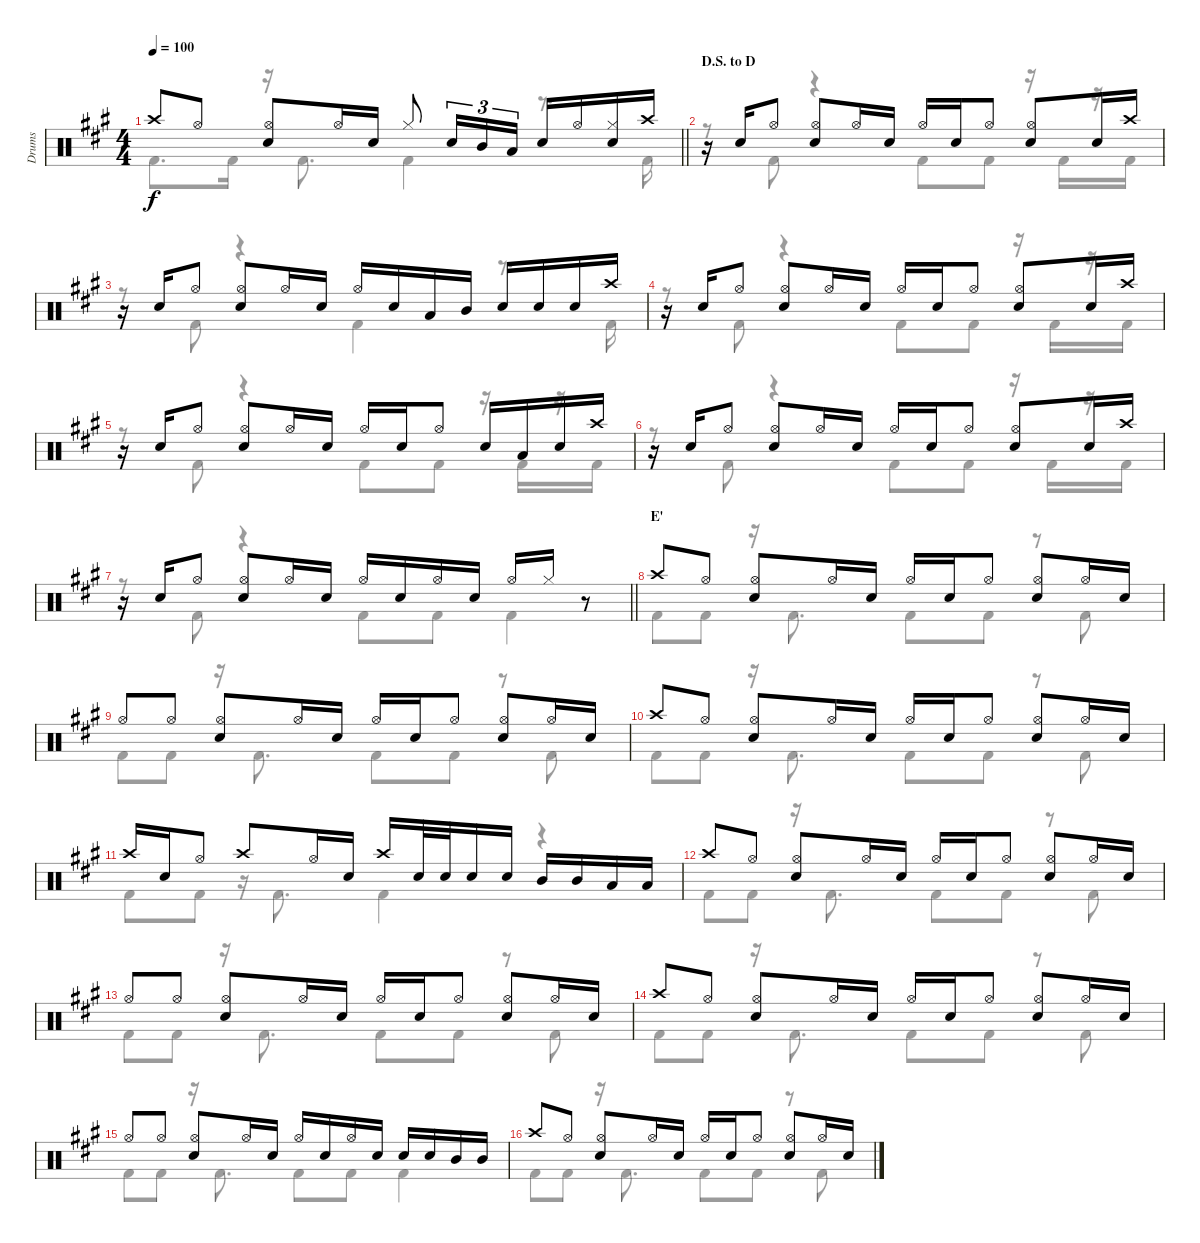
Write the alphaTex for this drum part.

\track ("Drums" "Drums") {instrument percussion}
\staff {score}
\articulation defaults
\voice
\ts (4 4)
\tempo 100
\clef neutral
\barLineRight lightlight
\ks a "Crash high (hit)".8{dy f} "Hi-Hat (open)".8
("Hi-Hat (open)" "Electric Snare (hit)").8 "Hi-Hat (open)".16 "Electric Snare (hit)".16 "Hi-Hat (closed)".8 "Electric Snare (hit)".16{tu (3 2)} "Mid Tom (hit)".16{tu (3 2)} "Low Tom (hit)".16{tu (3 2)} "Electric Snare (hit)".16 "Hi-Hat (open)".16 ("Hi-Hat (closed)" "Electric Snare (hit)").16 "Crash high (hit)".16 |
\section ("" "D.S. to D")
r.16 "Electric Snare (hit)".16 "Hi-Hat (open)".8 ("Hi-Hat (open)" "Electric Snare (hit)").8 "Hi-Hat (open)".16 "Electric Snare (hit)".16 "Hi-Hat (open)".16 "Electric Snare (hit)".16 "Hi-Hat (open)".8 ("Hi-Hat (open)" "Electric Snare (hit)").8 "Electric Snare (hit)".16 "Crash high (hit)".16 |
r.16 "Electric Snare (hit)".16 "Hi-Hat (open)".8 ("Hi-Hat (open)" "Electric Snare (hit)").8 "Hi-Hat (open)".16 "Electric Snare (hit)".16 "Hi-Hat (open)".16 "Electric Snare (hit)".16 "Low Tom (hit)".16 "Mid Tom (hit)".16 "Electric Snare (hit)".16 "Electric Snare (hit)".16 "Electric Snare (hit)".16 "Crash high (hit)".16 |
r.16 "Electric Snare (hit)".16 "Hi-Hat (open)".8 ("Hi-Hat (open)" "Electric Snare (hit)").8 "Hi-Hat (open)".16 "Electric Snare (hit)".16 "Hi-Hat (open)".16 "Electric Snare (hit)".16 "Hi-Hat (open)".8 ("Hi-Hat (open)" "Electric Snare (hit)").8 "Electric Snare (hit)".16 "Crash high (hit)".16 |
r.16 "Electric Snare (hit)".16 "Hi-Hat (open)".8 ("Hi-Hat (open)" "Electric Snare (hit)").8 "Hi-Hat (open)".16 "Electric Snare (hit)".16 "Hi-Hat (open)".16 "Electric Snare (hit)".16 "Hi-Hat (open)".8 "Electric Snare (hit)".16 "Low Tom (hit)".16 "Electric Snare (hit)".16 "Crash high (hit)".16 |
r.16 "Electric Snare (hit)".16 "Hi-Hat (open)".8 ("Hi-Hat (open)" "Electric Snare (hit)").8 "Hi-Hat (open)".16 "Electric Snare (hit)".16 "Hi-Hat (open)".16 "Electric Snare (hit)".16 "Hi-Hat (open)".8 ("Hi-Hat (open)" "Electric Snare (hit)").8 "Electric Snare (hit)".16 "Crash high (hit)".16 |
\barLineRight lightlight
r.16 "Electric Snare (hit)".16 "Hi-Hat (open)".8 ("Hi-Hat (open)" "Electric Snare (hit)").8 "Hi-Hat (open)".16 "Electric Snare (hit)".16 "Hi-Hat (open)".16 "Electric Snare (hit)".16 "Hi-Hat (open)".16 "Electric Snare (hit)".16 "Hi-Hat (open)".16 "Hi-Hat (closed)".16 r.8 |
\section ("" "E'")
"Crash high (hit)".8 "Hi-Hat (open)".8 ("Hi-Hat (open)" "Electric Snare (hit)").8 "Hi-Hat (open)".16 "Electric Snare (hit)".16 "Hi-Hat (open)".16 "Electric Snare (hit)".16 "Hi-Hat (open)".8 ("Hi-Hat (open)" "Electric Snare (hit)").8 "Hi-Hat (open)".16 "Electric Snare (hit)".16 |
"Hi-Hat (open)".8 "Hi-Hat (open)".8 ("Hi-Hat (open)" "Electric Snare (hit)").8 "Hi-Hat (open)".16 "Electric Snare (hit)".16 "Hi-Hat (open)".16 "Electric Snare (hit)".16 "Hi-Hat (open)".8 ("Hi-Hat (open)" "Electric Snare (hit)").8 "Hi-Hat (open)".16 "Electric Snare (hit)".16 |
"Crash high (hit)".8 "Hi-Hat (open)".8 ("Hi-Hat (open)" "Electric Snare (hit)").8 "Hi-Hat (open)".16 "Electric Snare (hit)".16 "Hi-Hat (open)".16 "Electric Snare (hit)".16 "Hi-Hat (open)".8 ("Hi-Hat (open)" "Electric Snare (hit)").8 "Hi-Hat (open)".16 "Electric Snare (hit)".16 |
"Crash high (hit)".16 "Electric Snare (hit)".16 "Hi-Hat (open)".8 "Crash high (hit)".8 "Hi-Hat (open)".16 "Electric Snare (hit)".16 "Crash high (hit)".16 "Electric Snare (hit)".32 "Electric Snare (hit)".32 "Electric Snare (hit)".16 "Electric Snare (hit)".16 "Mid Tom (hit)".16 "Mid Tom (hit)".16 "Low Tom (hit)".16 "Low Tom (hit)".16 |
"Crash high (hit)".8 "Hi-Hat (open)".8 ("Hi-Hat (open)" "Electric Snare (hit)").8 "Hi-Hat (open)".16 "Electric Snare (hit)".16 "Hi-Hat (open)".16 "Electric Snare (hit)".16 "Hi-Hat (open)".8 ("Hi-Hat (open)" "Electric Snare (hit)").8 "Hi-Hat (open)".16 "Electric Snare (hit)".16 |
"Hi-Hat (open)".8 "Hi-Hat (open)".8 ("Hi-Hat (open)" "Electric Snare (hit)").8 "Hi-Hat (open)".16 "Electric Snare (hit)".16 "Hi-Hat (open)".16 "Electric Snare (hit)".16 "Hi-Hat (open)".8 ("Hi-Hat (open)" "Electric Snare (hit)").8 "Hi-Hat (open)".16 "Electric Snare (hit)".16 |
"Crash high (hit)".8 "Hi-Hat (open)".8 ("Hi-Hat (open)" "Electric Snare (hit)").8 "Hi-Hat (open)".16 "Electric Snare (hit)".16 "Hi-Hat (open)".16 "Electric Snare (hit)".16 "Hi-Hat (open)".8 ("Hi-Hat (open)" "Electric Snare (hit)").8 "Hi-Hat (open)".16 "Electric Snare (hit)".16 |
"Hi-Hat (open)".8 "Hi-Hat (open)".8 ("Hi-Hat (open)" "Electric Snare (hit)").8 "Hi-Hat (open)".16 "Electric Snare (hit)".16 "Hi-Hat (open)".16 "Electric Snare (hit)".16 "Hi-Hat (open)".16 "Electric Snare (hit)".16 "Electric Snare (hit)".16 "Electric Snare (hit)".16 "Mid Tom (hit)".16 "Mid Tom (hit)".16 |
"Crash high (hit)".8 "Hi-Hat (open)".8 ("Hi-Hat (open)" "Electric Snare (hit)").8 "Hi-Hat (open)".16 "Electric Snare (hit)".16 "Hi-Hat (open)".16 "Electric Snare (hit)".16 "Hi-Hat (open)".8 ("Hi-Hat (open)" "Electric Snare (hit)").8 "Hi-Hat (open)".16 "Electric Snare (hit)".16
\voice
\clef neutral
\ottava regular
\simile none
\barLineRight lightlight
\ks a "Kick (hit) 2".8{d dy f} "Kick (hit) 2".16
r.16 "Kick (hit) 2".8{d} "Kick (hit) 2".4 r.8{d} "Kick (hit) 2".16 |
r.8 "Kick (hit) 2".8 r.4 "Kick (hit) 2".8 "Kick (hit) 2".8 r.16 "Kick (hit) 2".16 r.16 "Kick (hit) 2".16 |
r.8 "Kick (hit) 2".8 r.4 "Kick (hit) 2".4 r.8{d} "Kick (hit) 2".16 |
r.8 "Kick (hit) 2".8 r.4 "Kick (hit) 2".8 "Kick (hit) 2".8 r.16 "Kick (hit) 2".16 r.16 "Kick (hit) 2".16 |
r.8 "Kick (hit) 2".8 r.4 "Kick (hit) 2".8 "Kick (hit) 2".8 r.16 "Kick (hit) 2".16 r.16 "Kick (hit) 2".16 |
r.8 "Kick (hit) 2".8 r.4 "Kick (hit) 2".8 "Kick (hit) 2".8 r.16 "Kick (hit) 2".16 r.16 "Kick (hit) 2".16 |
\barLineRight lightlight
r.8 "Kick (hit) 2".8 r.4 "Kick (hit) 2".8 "Kick (hit) 2".8 "Kick (hit) 2".4 |
"Kick (hit) 2".8 "Kick (hit) 2".8 r.16 "Kick (hit) 2".8{d} "Kick (hit) 2".8 "Kick (hit) 2".8 r.8 "Kick (hit) 2".8 |
"Kick (hit) 2".8 "Kick (hit) 2".8 r.16 "Kick (hit) 2".8{d} "Kick (hit) 2".8 "Kick (hit) 2".8 r.8 "Kick (hit) 2".8 |
"Kick (hit) 2".8 "Kick (hit) 2".8 r.16 "Kick (hit) 2".8{d} "Kick (hit) 2".8 "Kick (hit) 2".8 r.8 "Kick (hit) 2".8 |
"Kick (hit) 2".8 "Kick (hit) 2".8 r.16 "Kick (hit) 2".8{d} "Kick (hit) 2".4 r.4 |
"Kick (hit) 2".8 "Kick (hit) 2".8 r.16 "Kick (hit) 2".8{d} "Kick (hit) 2".8 "Kick (hit) 2".8 r.8 "Kick (hit) 2".8 |
"Kick (hit) 2".8 "Kick (hit) 2".8 r.16 "Kick (hit) 2".8{d} "Kick (hit) 2".8 "Kick (hit) 2".8 r.8 "Kick (hit) 2".8 |
"Kick (hit) 2".8 "Kick (hit) 2".8 r.16 "Kick (hit) 2".8{d} "Kick (hit) 2".8 "Kick (hit) 2".8 r.8 "Kick (hit) 2".8 |
"Kick (hit) 2".8 "Kick (hit) 2".8 r.16 "Kick (hit) 2".8{d} "Kick (hit) 2".8 "Kick (hit) 2".8 "Kick (hit) 2".4 |
"Kick (hit) 2".8 "Kick (hit) 2".8 r.16 "Kick (hit) 2".8{d} "Kick (hit) 2".8 "Kick (hit) 2".8 r.8 "Kick (hit) 2".8
